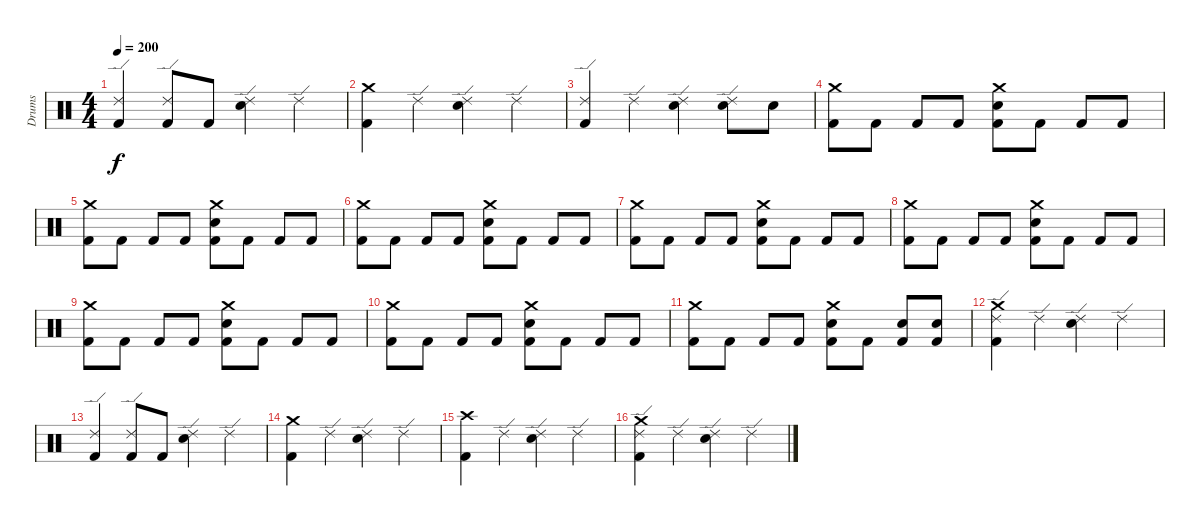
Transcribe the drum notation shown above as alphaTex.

\track ("Drums" "Drums") {instrument percussion}
\staff {score}
\articulation defaults
\ts (4 4)
\tempo 200
\clef neutral
\ks c
("Ride (edge) 2" "Kick (hit) 2").4{dy f} ("Ride (edge) 2" "Kick (hit) 2").8 "Kick (hit) 2".8 ("Ride (edge) 2" "Snare (hit) 2").4 "Ride (edge) 2".4 |
("Crash medium (hit)" "Kick (hit) 2").4 "Ride (edge) 2".4 ("Ride (edge) 2" "Snare (hit) 2").4 "Ride (edge) 2".4 |
("Ride (edge) 2" "Kick (hit) 2").4 "Ride (edge) 2".4 ("Ride (edge) 2" "Snare (hit) 2").4 ("Ride (edge) 2" "Snare (hit) 2").8 "Snare (hit) 2".8 |
("Crash medium (hit)" "Kick (hit) 2").8 "Kick (hit) 2".8 "Kick (hit) 2".8 "Kick (hit) 2".8 ("Crash medium (hit)" "Snare (hit) 2" "Kick (hit) 2").8 "Kick (hit) 2".8 "Kick (hit) 2".8 "Kick (hit) 2".8 |
("Crash medium (hit)" "Kick (hit) 2").8 "Kick (hit) 2".8 "Kick (hit) 2".8 "Kick (hit) 2".8 ("Crash medium (hit)" "Snare (hit) 2" "Kick (hit) 2").8 "Kick (hit) 2".8 "Kick (hit) 2".8 "Kick (hit) 2".8 |
("Crash medium (hit)" "Kick (hit) 2").8 "Kick (hit) 2".8 "Kick (hit) 2".8 "Kick (hit) 2".8 ("Crash medium (hit)" "Snare (hit) 2" "Kick (hit) 2").8 "Kick (hit) 2".8 "Kick (hit) 2".8 "Kick (hit) 2".8 |
("Crash medium (hit)" "Kick (hit) 2").8 "Kick (hit) 2".8 "Kick (hit) 2".8 "Kick (hit) 2".8 ("Crash medium (hit)" "Snare (hit) 2" "Kick (hit) 2").8 "Kick (hit) 2".8 "Kick (hit) 2".8 "Kick (hit) 2".8 |
("Crash medium (hit)" "Kick (hit) 2").8 "Kick (hit) 2".8 "Kick (hit) 2".8 "Kick (hit) 2".8 ("Crash medium (hit)" "Snare (hit) 2" "Kick (hit) 2").8 "Kick (hit) 2".8 "Kick (hit) 2".8 "Kick (hit) 2".8 |
("Crash medium (hit)" "Kick (hit) 2").8 "Kick (hit) 2".8 "Kick (hit) 2".8 "Kick (hit) 2".8 ("Crash medium (hit)" "Snare (hit) 2" "Kick (hit) 2").8 "Kick (hit) 2".8 "Kick (hit) 2".8 "Kick (hit) 2".8 |
("Crash medium (hit)" "Kick (hit) 2").8 "Kick (hit) 2".8 "Kick (hit) 2".8 "Kick (hit) 2".8 ("Crash medium (hit)" "Snare (hit) 2" "Kick (hit) 2").8 "Kick (hit) 2".8 "Kick (hit) 2".8 "Kick (hit) 2".8 |
("Crash medium (hit)" "Kick (hit) 2").8 "Kick (hit) 2".8 "Kick (hit) 2".8 "Kick (hit) 2".8 ("Crash medium (hit)" "Snare (hit) 2" "Kick (hit) 2").8 "Kick (hit) 2".8 ("Snare (hit) 2" "Kick (hit) 2").8 ("Snare (hit) 2" "Kick (hit) 2").8 |
("Crash medium (hit)" "Ride (edge) 2" "Kick (hit) 2").4 "Ride (edge) 2".4 ("Ride (edge) 2" "Snare (hit) 2").4 "Ride (edge) 2".4 |
("Ride (edge) 2" "Kick (hit) 2").4 ("Ride (edge) 2" "Kick (hit) 2").8 "Kick (hit) 2".8 ("Ride (edge) 2" "Snare (hit) 2").4 "Ride (edge) 2".4 |
("Crash medium (hit)" "Kick (hit) 2").4 "Ride (edge) 2".4 ("Ride (edge) 2" "Snare (hit) 2").4 "Ride (edge) 2".4 |
("Crash high (hit)" "Kick (hit) 2").4 "Ride (edge) 2".4 ("Ride (edge) 2" "Snare (hit) 2").4 "Ride (edge) 2".4 |
("Crash medium (hit)" "Ride (edge) 2" "Kick (hit) 2").4 "Ride (edge) 2".4 ("Ride (edge) 2" "Snare (hit) 2").4 "Ride (edge) 2".4
